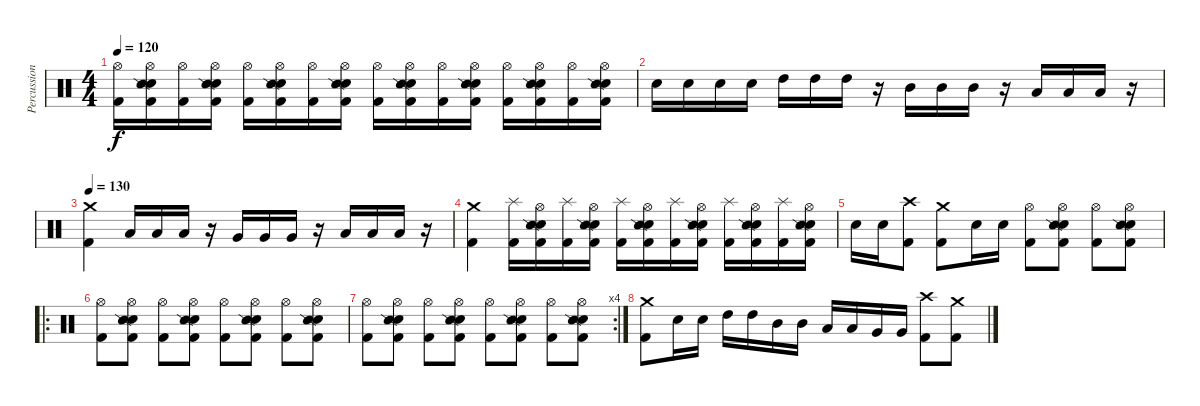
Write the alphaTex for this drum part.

\track ("Percussion" "Percussion") {instrument percussion}
\staff {score}
\articulation defaults
\ts (4 4)
\tempo 120
\clef neutral
\ks c
("Hi-Hat (open)" "Kick (hit) 2").16{dy f} ("Hi-Hat (open)" "Electric Snare (hit)" "Snare (side stick) 2" "Kick (hit) 2").16 ("Hi-Hat (open)" "Kick (hit) 2").16 ("Hi-Hat (open)" "Electric Snare (hit)" "Snare (side stick) 2" "Kick (hit) 2").16 ("Hi-Hat (open)" "Kick (hit) 2").16 ("Hi-Hat (open)" "Electric Snare (hit)" "Snare (side stick) 2" "Kick (hit) 2").16 ("Hi-Hat (open)" "Kick (hit) 2").16 ("Hi-Hat (open)" "Electric Snare (hit)" "Snare (side stick) 2" "Kick (hit) 2").16 ("Hi-Hat (open)" "Kick (hit) 2").16 ("Hi-Hat (open)" "Electric Snare (hit)" "Snare (side stick) 2" "Kick (hit) 2").16 ("Hi-Hat (open)" "Kick (hit) 2").16 ("Hi-Hat (open)" "Electric Snare (hit)" "Snare (side stick) 2" "Kick (hit) 2").16 ("Hi-Hat (open)" "Kick (hit) 2").16 ("Hi-Hat (open)" "Electric Snare (hit)" "Snare (side stick) 2" "Kick (hit) 2").16 ("Hi-Hat (open)" "Kick (hit) 2").16 ("Hi-Hat (open)" "Electric Snare (hit)" "Snare (side stick) 2" "Kick (hit) 2").16 |
"Electric Snare (hit)".16 "Electric Snare (hit)".16 "Electric Snare (hit)".16 "Electric Snare (hit)".16 "High Tom (hit)".16 "High Tom (hit)".16 "High Tom (hit)".16 r.16 "Mid Tom (hit)".16 "Mid Tom (hit)".16 "Mid Tom (hit)".16 r.16 "Low Tom (hit)".16 "Low Tom (hit)".16 "Low Tom (hit)".16 r.16 |
\tempo 130
("Crash medium (hit)" "Kick (hit) 2").4 "Low Tom (hit)".16 "Low Tom (hit)".16 "Low Tom (hit)".16 r.16 "Very Low Tom (hit)".16 "Very Low Tom (hit)".16 "Very Low Tom (hit)".16 r.16 "Low Floor Tom (hit)".16 "Low Floor Tom (hit)".16 "Low Floor Tom (hit)".16 r.16 |
("Crash medium (hit)" "Kick (hit) 2").4 ("Splash (hit)" "Kick (hit) 2").16 ("Hi-Hat (open)" "Electric Snare (hit)" "Snare (side stick) 2" "Kick (hit) 2").16 ("Splash (hit)" "Kick (hit) 2").16 ("Hi-Hat (open)" "Electric Snare (hit)" "Snare (side stick) 2" "Kick (hit) 2").16 ("Splash (hit)" "Kick (hit) 2").16 ("Hi-Hat (open)" "Electric Snare (hit)" "Snare (side stick) 2" "Kick (hit) 2").16 ("Splash (hit)" "Kick (hit) 2").16 ("Hi-Hat (open)" "Electric Snare (hit)" "Snare (side stick) 2" "Kick (hit) 2").16 ("Splash (hit)" "Kick (hit) 2").16 ("Hi-Hat (open)" "Electric Snare (hit)" "Snare (side stick) 2" "Kick (hit) 2").16 ("Splash (hit)" "Kick (hit) 2").16 ("Hi-Hat (open)" "Electric Snare (hit)" "Snare (side stick) 2" "Kick (hit) 2").16 |
"Electric Snare (hit)".16 "Electric Snare (hit)".16 ("Crash high (hit)" "Kick (hit) 2").8 ("Crash medium (hit)" "Kick (hit) 2").8 "Electric Snare (hit)".16 "Electric Snare (hit)".16 ("Hi-Hat (open)" "Kick (hit) 2").8 ("Hi-Hat (open)" "Electric Snare (hit)" "Snare (side stick) 2" "Kick (hit) 2").8 ("Hi-Hat (open)" "Kick (hit) 2").8 ("Hi-Hat (open)" "Electric Snare (hit)" "Snare (side stick) 2" "Kick (hit) 2").8 |
\ro
("Hi-Hat (open)" "Kick (hit) 2").8 ("Hi-Hat (open)" "Electric Snare (hit)" "Snare (side stick) 2" "Kick (hit) 2").8 ("Hi-Hat (open)" "Kick (hit) 2").8 ("Hi-Hat (open)" "Electric Snare (hit)" "Snare (side stick) 2" "Kick (hit) 2").8 ("Hi-Hat (open)" "Kick (hit) 2").8 ("Hi-Hat (open)" "Electric Snare (hit)" "Snare (side stick) 2" "Kick (hit) 2").8 ("Hi-Hat (open)" "Kick (hit) 2").8 ("Hi-Hat (open)" "Electric Snare (hit)" "Snare (side stick) 2" "Kick (hit) 2").8 |
\rc 4
("Hi-Hat (open)" "Kick (hit) 2").8 ("Hi-Hat (open)" "Electric Snare (hit)" "Snare (side stick) 2" "Kick (hit) 2").8 ("Hi-Hat (open)" "Kick (hit) 2").8 ("Hi-Hat (open)" "Electric Snare (hit)" "Snare (side stick) 2" "Kick (hit) 2").8 ("Hi-Hat (open)" "Kick (hit) 2").8 ("Hi-Hat (open)" "Electric Snare (hit)" "Snare (side stick) 2" "Kick (hit) 2").8 ("Hi-Hat (open)" "Kick (hit) 2").8 ("Hi-Hat (open)" "Electric Snare (hit)" "Snare (side stick) 2" "Kick (hit) 2").8 |
("Crash medium (hit)" "Kick (hit) 2").8 "Electric Snare (hit)".16 "Electric Snare (hit)".16 "High Tom (hit)".16 "High Tom (hit)".16 "Mid Tom (hit)".16 "Mid Tom (hit)".16 "Low Tom (hit)".16 "Low Tom (hit)".16 "Very Low Tom (hit)".16 "Very Low Tom (hit)".16 ("Crash high (hit)" "Kick (hit) 2").8 ("Crash medium (hit)" "Kick (hit) 2").8
